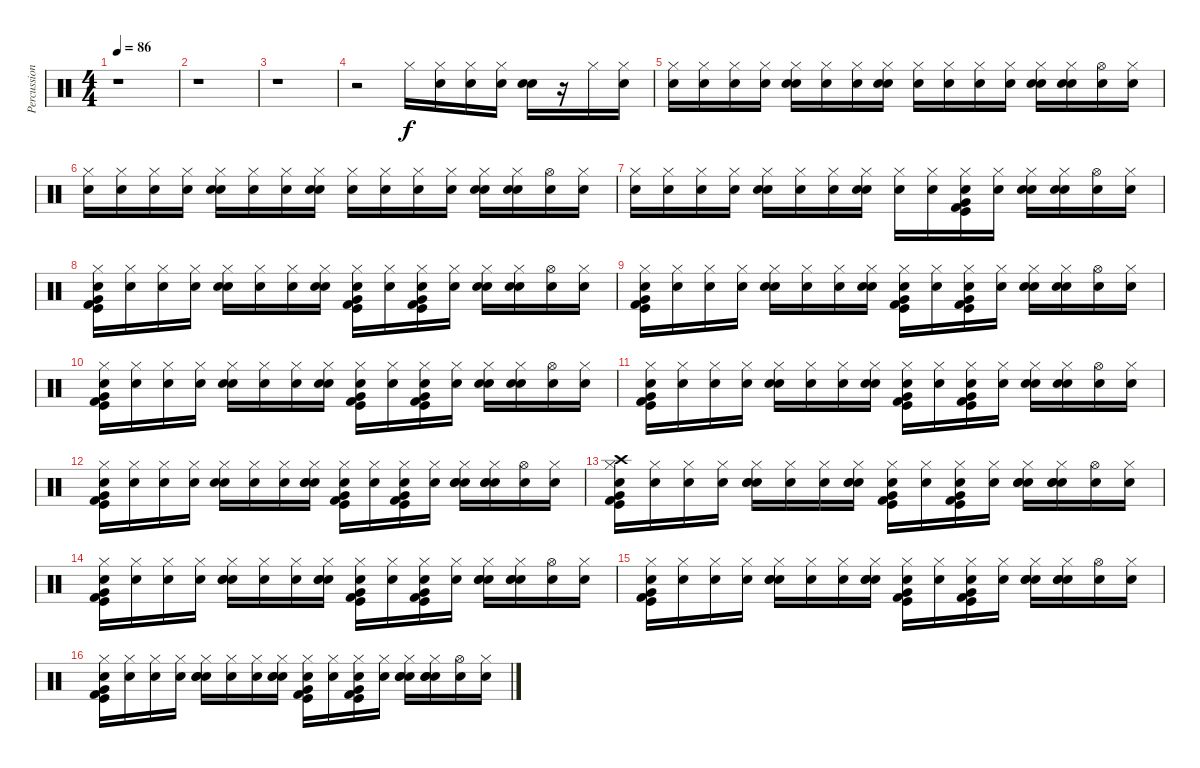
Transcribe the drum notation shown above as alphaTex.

\track ("Percussions (from MIDI)" "Percussion") {instrument percussion}
\staff {score}
\articulation defaults
\ts (4 4)
\tempo 86
\clef neutral
\ks c
r.1{dy f} |
r.1 |
r.1 |
r.2 "Hi-Hat (closed)".16 ("Snare (hit)" "Hi-Hat (closed)").16 ("Snare (hit)" "Hi-Hat (closed)").16 ("Snare (hit)" "Hi-Hat (closed)").16 ("Snare (hit)" "Electric Snare (hit)").16 r.16 "Hi-Hat (closed)".16 ("Snare (hit)" "Hi-Hat (closed)").16 |
("Snare (hit)" "Hi-Hat (closed)").16 ("Snare (hit)" "Hi-Hat (closed)").16 ("Snare (hit)" "Hi-Hat (closed)").16 ("Snare (hit)" "Hi-Hat (closed)").16 ("Snare (hit)" "Hi-Hat (closed)" "Electric Snare (hit)").16 ("Snare (hit)" "Hi-Hat (closed)").16 ("Snare (hit)" "Hi-Hat (closed)").16 ("Snare (hit)" "Hi-Hat (closed)" "Electric Snare (hit)").16 ("Snare (hit)" "Hi-Hat (closed)").16 ("Snare (hit)" "Hi-Hat (closed)").16 ("Snare (hit)" "Hi-Hat (closed)").16 ("Snare (hit)" "Hi-Hat (closed)").16 ("Snare (hit)" "Hi-Hat (closed)" "Electric Snare (hit)").16 ("Snare (hit)" "Hi-Hat (closed)" "Electric Snare (hit)").16 ("Snare (hit)" "Hi-Hat (open)").16 ("Snare (hit)" "Hi-Hat (closed)").16 |
("Snare (hit)" "Hi-Hat (closed)").16 ("Snare (hit)" "Hi-Hat (closed)").16 ("Snare (hit)" "Hi-Hat (closed)").16 ("Snare (hit)" "Hi-Hat (closed)").16 ("Snare (hit)" "Hi-Hat (closed)" "Electric Snare (hit)").16 ("Snare (hit)" "Hi-Hat (closed)").16 ("Snare (hit)" "Hi-Hat (closed)").16 ("Snare (hit)" "Hi-Hat (closed)" "Electric Snare (hit)").16 ("Snare (hit)" "Hi-Hat (closed)").16 ("Snare (hit)" "Hi-Hat (closed)").16 ("Snare (hit)" "Hi-Hat (closed)").16 ("Snare (hit)" "Hi-Hat (closed)").16 ("Snare (hit)" "Hi-Hat (closed)" "Electric Snare (hit)").16 ("Snare (hit)" "Hi-Hat (closed)" "Electric Snare (hit)").16 ("Snare (hit)" "Hi-Hat (open)").16 ("Snare (hit)" "Hi-Hat (closed)").16 |
("Snare (hit)" "Hi-Hat (closed)").16 ("Snare (hit)" "Hi-Hat (closed)").16 ("Snare (hit)" "Hi-Hat (closed)").16 ("Snare (hit)" "Hi-Hat (closed)").16 ("Snare (hit)" "Hi-Hat (closed)" "Electric Snare (hit)").16 ("Snare (hit)" "Hi-Hat (closed)").16 ("Snare (hit)" "Hi-Hat (closed)").16 ("Snare (hit)" "Hi-Hat (closed)" "Electric Snare (hit)").16 ("Snare (hit)" "Hi-Hat (closed)").16 ("Snare (hit)" "Hi-Hat (closed)").16 ("Snare (hit)" "Hi-Hat (closed)" "Kick (hit) 2" "Kick (hit)" "Very Low Tom (hit)").16 ("Snare (hit)" "Hi-Hat (closed)").16 ("Snare (hit)" "Hi-Hat (closed)" "Electric Snare (hit)").16 ("Snare (hit)" "Hi-Hat (closed)" "Electric Snare (hit)").16 ("Snare (hit)" "Hi-Hat (open)").16 ("Snare (hit)" "Hi-Hat (closed)").16 |
("Snare (hit)" "Hi-Hat (closed)" "Very Low Tom (hit)" "Kick (hit) 2" "Kick (hit)").16 ("Snare (hit)" "Hi-Hat (closed)").16 ("Snare (hit)" "Hi-Hat (closed)").16 ("Snare (hit)" "Hi-Hat (closed)").16 ("Snare (hit)" "Hi-Hat (closed)" "Electric Snare (hit)").16 ("Snare (hit)" "Hi-Hat (closed)").16 ("Snare (hit)" "Hi-Hat (closed)").16 ("Snare (hit)" "Hi-Hat (closed)" "Electric Snare (hit)").16 ("Snare (hit)" "Hi-Hat (closed)" "Very Low Tom (hit)" "Kick (hit) 2" "Kick (hit)").16 ("Snare (hit)" "Hi-Hat (closed)").16 ("Snare (hit)" "Hi-Hat (closed)" "Very Low Tom (hit)" "Kick (hit) 2" "Kick (hit)").16 ("Snare (hit)" "Hi-Hat (closed)").16 ("Snare (hit)" "Hi-Hat (closed)" "Electric Snare (hit)").16 ("Snare (hit)" "Hi-Hat (closed)" "Electric Snare (hit)").16 ("Snare (hit)" "Hi-Hat (open)").16 ("Snare (hit)" "Hi-Hat (closed)").16 |
("Snare (hit)" "Kick (hit)" "Kick (hit) 2" "Very Low Tom (hit)" "Hi-Hat (closed)").16 ("Snare (hit)" "Hi-Hat (closed)").16 ("Snare (hit)" "Hi-Hat (closed)").16 ("Snare (hit)" "Hi-Hat (closed)").16 ("Snare (hit)" "Hi-Hat (closed)" "Electric Snare (hit)").16 ("Snare (hit)" "Hi-Hat (closed)").16 ("Snare (hit)" "Hi-Hat (closed)").16 ("Snare (hit)" "Hi-Hat (closed)" "Electric Snare (hit)").16 ("Snare (hit)" "Hi-Hat (closed)" "Very Low Tom (hit)" "Kick (hit) 2" "Kick (hit)").16 ("Snare (hit)" "Hi-Hat (closed)").16 ("Snare (hit)" "Hi-Hat (closed)" "Very Low Tom (hit)" "Kick (hit) 2" "Kick (hit)").16 ("Snare (hit)" "Hi-Hat (closed)").16 ("Snare (hit)" "Hi-Hat (closed)" "Electric Snare (hit)").16 ("Snare (hit)" "Hi-Hat (closed)" "Electric Snare (hit)").16 ("Snare (hit)" "Hi-Hat (open)").16 ("Snare (hit)" "Hi-Hat (closed)").16 |
("Snare (hit)" "Kick (hit)" "Kick (hit) 2" "Very Low Tom (hit)" "Hi-Hat (closed)").16 ("Snare (hit)" "Hi-Hat (closed)").16 ("Snare (hit)" "Hi-Hat (closed)").16 ("Snare (hit)" "Hi-Hat (closed)").16 ("Snare (hit)" "Hi-Hat (closed)" "Electric Snare (hit)").16 ("Snare (hit)" "Hi-Hat (closed)").16 ("Snare (hit)" "Hi-Hat (closed)").16 ("Snare (hit)" "Hi-Hat (closed)" "Electric Snare (hit)").16 ("Snare (hit)" "Hi-Hat (closed)" "Very Low Tom (hit)" "Kick (hit) 2" "Kick (hit)").16 ("Snare (hit)" "Hi-Hat (closed)").16 ("Snare (hit)" "Hi-Hat (closed)" "Very Low Tom (hit)" "Kick (hit) 2" "Kick (hit)").16 ("Snare (hit)" "Hi-Hat (closed)").16 ("Snare (hit)" "Hi-Hat (closed)" "Electric Snare (hit)").16 ("Snare (hit)" "Hi-Hat (closed)" "Electric Snare (hit)").16 ("Snare (hit)" "Hi-Hat (open)").16 ("Snare (hit)" "Hi-Hat (closed)").16 |
("Snare (hit)" "Kick (hit)" "Kick (hit) 2" "Very Low Tom (hit)" "Hi-Hat (closed)").16 ("Snare (hit)" "Hi-Hat (closed)").16 ("Snare (hit)" "Hi-Hat (closed)").16 ("Snare (hit)" "Hi-Hat (closed)").16 ("Snare (hit)" "Hi-Hat (closed)" "Electric Snare (hit)").16 ("Snare (hit)" "Hi-Hat (closed)").16 ("Snare (hit)" "Hi-Hat (closed)").16 ("Snare (hit)" "Hi-Hat (closed)" "Electric Snare (hit)").16 ("Snare (hit)" "Hi-Hat (closed)" "Very Low Tom (hit)" "Kick (hit) 2" "Kick (hit)").16 ("Snare (hit)" "Hi-Hat (closed)").16 ("Snare (hit)" "Hi-Hat (closed)" "Very Low Tom (hit)" "Kick (hit) 2" "Kick (hit)").16 ("Snare (hit)" "Hi-Hat (closed)").16 ("Snare (hit)" "Hi-Hat (closed)" "Electric Snare (hit)").16 ("Snare (hit)" "Hi-Hat (closed)" "Electric Snare (hit)").16 ("Snare (hit)" "Hi-Hat (open)").16 ("Snare (hit)" "Hi-Hat (closed)").16 |
("Snare (hit)" "Kick (hit)" "Kick (hit) 2" "Very Low Tom (hit)" "Hi-Hat (closed)").16 ("Snare (hit)" "Hi-Hat (closed)").16 ("Snare (hit)" "Hi-Hat (closed)").16 ("Snare (hit)" "Hi-Hat (closed)").16 ("Snare (hit)" "Hi-Hat (closed)" "Electric Snare (hit)").16 ("Snare (hit)" "Hi-Hat (closed)").16 ("Snare (hit)" "Hi-Hat (closed)").16 ("Snare (hit)" "Hi-Hat (closed)" "Electric Snare (hit)" "Snare (hit) 2").16 ("Snare (hit)" "Hi-Hat (closed)" "Very Low Tom (hit)" "Kick (hit) 2" "Kick (hit)").16 ("Snare (hit)" "Hi-Hat (closed)").16 ("Snare (hit)" "Hi-Hat (closed)" "Very Low Tom (hit)" "Kick (hit) 2" "Kick (hit)").16 ("Snare (hit)" "Hi-Hat (closed)").16 ("Snare (hit)" "Hi-Hat (closed)" "Electric Snare (hit)" "Snare (hit) 2").16 ("Snare (hit)" "Hi-Hat (closed)" "Snare (hit) 2" "Electric Snare (hit)").16 ("Snare (hit)" "Hi-Hat (open)").16 ("Snare (hit)" "Hi-Hat (closed)").16 |
("Snare (hit)" "Crash high (hit)" "Hi-Hat (closed)" "Very Low Tom (hit)" "Kick (hit) 2" "Kick (hit)").16 ("Snare (hit)" "Hi-Hat (closed)").16 ("Snare (hit)" "Hi-Hat (closed)").16 ("Snare (hit)" "Hi-Hat (closed)").16 ("Snare (hit)" "Hi-Hat (closed)" "Electric Snare (hit)" "Snare (hit) 2").16 ("Snare (hit)" "Hi-Hat (closed)").16 ("Snare (hit)" "Hi-Hat (closed)").16 ("Snare (hit)" "Hi-Hat (closed)" "Electric Snare (hit)" "Snare (hit) 2").16 ("Snare (hit)" "Hi-Hat (closed)" "Very Low Tom (hit)" "Kick (hit) 2" "Kick (hit)").16 ("Snare (hit)" "Hi-Hat (closed)").16 ("Snare (hit)" "Hi-Hat (closed)" "Very Low Tom (hit)" "Kick (hit) 2" "Kick (hit)").16 ("Snare (hit)" "Hi-Hat (closed)").16 ("Snare (hit)" "Hi-Hat (closed)" "Electric Snare (hit)" "Snare (hit) 2").16 ("Snare (hit)" "Hi-Hat (closed)" "Snare (hit) 2" "Electric Snare (hit)").16 ("Snare (hit)" "Hi-Hat (open)").16 ("Snare (hit)" "Hi-Hat (closed)").16 |
("Snare (hit)" "Hi-Hat (closed)" "Very Low Tom (hit)" "Kick (hit) 2" "Kick (hit)").16 ("Snare (hit)" "Hi-Hat (closed)").16 ("Snare (hit)" "Hi-Hat (closed)").16 ("Snare (hit)" "Hi-Hat (closed)").16 ("Snare (hit)" "Hi-Hat (closed)" "Electric Snare (hit)" "Snare (hit) 2").16 ("Snare (hit)" "Hi-Hat (closed)").16 ("Snare (hit)" "Hi-Hat (closed)").16 ("Snare (hit)" "Hi-Hat (closed)" "Electric Snare (hit)" "Snare (hit) 2").16 ("Snare (hit)" "Hi-Hat (closed)" "Very Low Tom (hit)" "Kick (hit) 2" "Kick (hit)").16 ("Snare (hit)" "Hi-Hat (closed)").16 ("Snare (hit)" "Hi-Hat (closed)" "Very Low Tom (hit)" "Kick (hit) 2" "Kick (hit)").16 ("Snare (hit)" "Hi-Hat (closed)").16 ("Snare (hit)" "Hi-Hat (closed)" "Electric Snare (hit)" "Snare (hit) 2").16 ("Snare (hit)" "Hi-Hat (closed)" "Snare (hit) 2" "Electric Snare (hit)").16 ("Snare (hit)" "Hi-Hat (open)").16 ("Snare (hit)" "Hi-Hat (closed)").16 |
("Snare (hit)" "Hi-Hat (closed)" "Very Low Tom (hit)" "Kick (hit) 2" "Kick (hit)").16 ("Snare (hit)" "Hi-Hat (closed)").16 ("Snare (hit)" "Hi-Hat (closed)").16 ("Snare (hit)" "Hi-Hat (closed)").16 ("Snare (hit)" "Hi-Hat (closed)" "Electric Snare (hit)" "Snare (hit) 2").16 ("Snare (hit)" "Hi-Hat (closed)").16 ("Snare (hit)" "Hi-Hat (closed)").16 ("Snare (hit)" "Hi-Hat (closed)" "Electric Snare (hit)" "Snare (hit) 2").16 ("Snare (hit)" "Hi-Hat (closed)" "Very Low Tom (hit)" "Kick (hit) 2" "Kick (hit)").16 ("Snare (hit)" "Hi-Hat (closed)").16 ("Snare (hit)" "Hi-Hat (closed)" "Very Low Tom (hit)" "Kick (hit) 2" "Kick (hit)").16 ("Snare (hit)" "Hi-Hat (closed)").16 ("Snare (hit)" "Hi-Hat (closed)" "Electric Snare (hit)" "Snare (hit) 2").16 ("Snare (hit)" "Hi-Hat (closed)" "Snare (hit) 2" "Electric Snare (hit)").16 ("Snare (hit)" "Hi-Hat (open)").16 ("Snare (hit)" "Hi-Hat (closed)").16 |
("Snare (hit)" "Hi-Hat (closed)" "Very Low Tom (hit)" "Kick (hit) 2" "Kick (hit)").16 ("Snare (hit)" "Hi-Hat (closed)").16 ("Snare (hit)" "Hi-Hat (closed)").16 ("Snare (hit)" "Hi-Hat (closed)").16 ("Snare (hit)" "Hi-Hat (closed)" "Electric Snare (hit)" "Snare (hit) 2").16 ("Snare (hit)" "Hi-Hat (closed)").16 ("Snare (hit)" "Hi-Hat (closed)").16 ("Snare (hit)" "Hi-Hat (closed)" "Electric Snare (hit)" "Snare (hit) 2").16 ("Snare (hit)" "Hi-Hat (closed)" "Very Low Tom (hit)" "Kick (hit) 2" "Kick (hit)").16 ("Snare (hit)" "Hi-Hat (closed)").16 ("Snare (hit)" "Hi-Hat (closed)" "Very Low Tom (hit)" "Kick (hit) 2" "Kick (hit)").16 ("Snare (hit)" "Hi-Hat (closed)").16 ("Snare (hit)" "Hi-Hat (closed)" "Electric Snare (hit)" "Snare (hit) 2").16 ("Snare (hit)" "Hi-Hat (closed)" "Snare (hit) 2" "Electric Snare (hit)").16 ("Snare (hit)" "Hi-Hat (open)").16 ("Snare (hit)" "Hi-Hat (closed)").16
